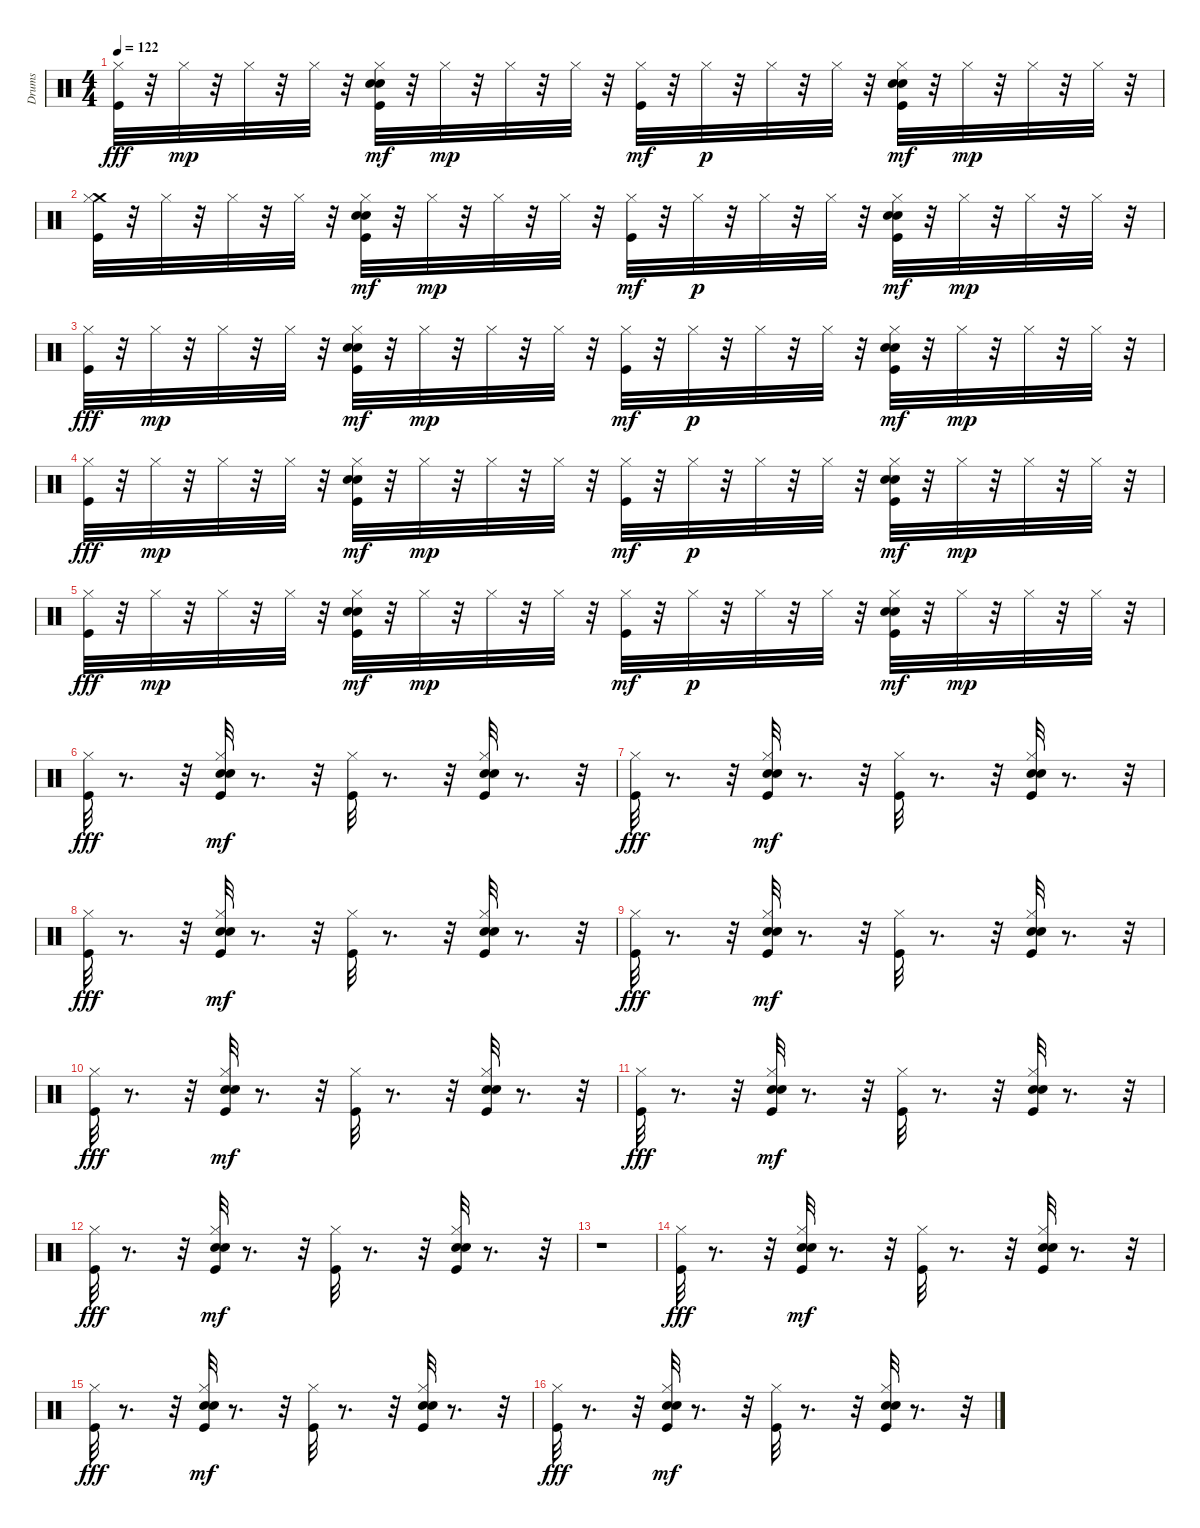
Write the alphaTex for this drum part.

\track ("Drums" "Drums") {instrument percussion}
\staff {score}
\articulation defaults
\ts (4 4)
\tempo 122
\clef neutral
\ks c
("Kick (hit)" "Hi-Hat (closed)").32{dy fff} r.32 "Hi-Hat (closed)".32{dy mp} r.32 "Hi-Hat (closed)".32 r.32 "Hi-Hat (closed)".32 r.32 ("Kick (hit)" "Hand Clap (hit)" "Electric Snare (hit)" "Hi-Hat (closed)").32{dy mf} r.32 "Hi-Hat (closed)".32{dy mp} r.32 "Hi-Hat (closed)".32 r.32 "Hi-Hat (closed)".32 r.32 ("Kick (hit)" "Hi-Hat (closed)").32{dy mf} r.32 "Hi-Hat (closed)".32{dy p} r.32 "Hi-Hat (closed)".32 r.32 "Hi-Hat (closed)".32 r.32 ("Kick (hit)" "Hand Clap (hit)" "Electric Snare (hit)" "Hi-Hat (closed)").32{dy mf} r.32 "Hi-Hat (closed)".32{dy mp} r.32 "Hi-Hat (closed)".32 r.32 "Hi-Hat (closed)".32 r.32 |
("Kick (hit)" "Crash medium (hit)" "Hi-Hat (closed)").32 r.32 "Hi-Hat (closed)".32 r.32 "Hi-Hat (closed)".32 r.32 "Hi-Hat (closed)".32 r.32 ("Kick (hit)" "Hand Clap (hit)" "Electric Snare (hit)" "Hi-Hat (closed)").32{dy mf} r.32 "Hi-Hat (closed)".32{dy mp} r.32 "Hi-Hat (closed)".32 r.32 "Hi-Hat (closed)".32 r.32 ("Kick (hit)" "Hi-Hat (closed)").32{dy mf} r.32 "Hi-Hat (closed)".32{dy p} r.32 "Hi-Hat (closed)".32 r.32 "Hi-Hat (closed)".32 r.32 ("Kick (hit)" "Hand Clap (hit)" "Electric Snare (hit)" "Hi-Hat (closed)").32{dy mf} r.32 "Hi-Hat (closed)".32{dy mp} r.32 "Hi-Hat (closed)".32 r.32 "Hi-Hat (closed)".32 r.32 |
("Kick (hit)" "Hi-Hat (closed)").32{dy fff} r.32 "Hi-Hat (closed)".32{dy mp} r.32 "Hi-Hat (closed)".32 r.32 "Hi-Hat (closed)".32 r.32 ("Kick (hit)" "Hand Clap (hit)" "Electric Snare (hit)" "Hi-Hat (closed)").32{dy mf} r.32 "Hi-Hat (closed)".32{dy mp} r.32 "Hi-Hat (closed)".32 r.32 "Hi-Hat (closed)".32 r.32 ("Kick (hit)" "Hi-Hat (closed)").32{dy mf} r.32 "Hi-Hat (closed)".32{dy p} r.32 "Hi-Hat (closed)".32 r.32 "Hi-Hat (closed)".32 r.32 ("Kick (hit)" "Hand Clap (hit)" "Electric Snare (hit)" "Hi-Hat (closed)").32{dy mf} r.32 "Hi-Hat (closed)".32{dy mp} r.32 "Hi-Hat (closed)".32 r.32 "Hi-Hat (closed)".32 r.32 |
("Kick (hit)" "Hi-Hat (closed)").32{dy fff} r.32 "Hi-Hat (closed)".32{dy mp} r.32 "Hi-Hat (closed)".32 r.32 "Hi-Hat (closed)".32 r.32 ("Kick (hit)" "Hand Clap (hit)" "Electric Snare (hit)" "Hi-Hat (closed)").32{dy mf} r.32 "Hi-Hat (closed)".32{dy mp} r.32 "Hi-Hat (closed)".32 r.32 "Hi-Hat (closed)".32 r.32 ("Kick (hit)" "Hi-Hat (closed)").32{dy mf} r.32 "Hi-Hat (closed)".32{dy p} r.32 "Hi-Hat (closed)".32 r.32 "Hi-Hat (closed)".32 r.32 ("Kick (hit)" "Hand Clap (hit)" "Electric Snare (hit)" "Hi-Hat (closed)").32{dy mf} r.32 "Hi-Hat (closed)".32{dy mp} r.32 "Hi-Hat (closed)".32 r.32 "Hi-Hat (closed)".32 r.32 |
("Kick (hit)" "Hi-Hat (closed)").32{dy fff} r.32 "Hi-Hat (closed)".32{dy mp} r.32 "Hi-Hat (closed)".32 r.32 "Hi-Hat (closed)".32 r.32 ("Kick (hit)" "Hand Clap (hit)" "Electric Snare (hit)" "Hi-Hat (closed)").32{dy mf} r.32 "Hi-Hat (closed)".32{dy mp} r.32 "Hi-Hat (closed)".32 r.32 "Hi-Hat (closed)".32 r.32 ("Kick (hit)" "Hi-Hat (closed)").32{dy mf} r.32 "Hi-Hat (closed)".32{dy p} r.32 "Hi-Hat (closed)".32 r.32 "Hi-Hat (closed)".32 r.32 ("Kick (hit)" "Hand Clap (hit)" "Electric Snare (hit)" "Hi-Hat (closed)").32{dy mf} r.32 "Hi-Hat (closed)".32{dy mp} r.32 "Hi-Hat (closed)".32 r.32 "Hi-Hat (closed)".32 r.32 |
("Kick (hit)" "Hi-Hat (closed)").32{dy fff} r.8{d} r.32 ("Kick (hit)" "Hand Clap (hit)" "Electric Snare (hit)" "Hi-Hat (closed)").32{dy mf} r.8{d} r.32 ("Kick (hit)" "Hi-Hat (closed)").32 r.8{d} r.32 ("Kick (hit)" "Hand Clap (hit)" "Electric Snare (hit)" "Hi-Hat (closed)").32 r.8{d} r.32 |
("Kick (hit)" "Hi-Hat (closed)").32{dy fff} r.8{d} r.32 ("Kick (hit)" "Hand Clap (hit)" "Electric Snare (hit)" "Hi-Hat (closed)").32{dy mf} r.8{d} r.32 ("Kick (hit)" "Hi-Hat (closed)").32 r.8{d} r.32 ("Kick (hit)" "Hand Clap (hit)" "Electric Snare (hit)" "Hi-Hat (closed)").32 r.8{d} r.32 |
("Kick (hit)" "Hi-Hat (closed)").32{dy fff} r.8{d} r.32 ("Kick (hit)" "Hand Clap (hit)" "Electric Snare (hit)" "Hi-Hat (closed)").32{dy mf} r.8{d} r.32 ("Kick (hit)" "Hi-Hat (closed)").32 r.8{d} r.32 ("Kick (hit)" "Hand Clap (hit)" "Electric Snare (hit)" "Hi-Hat (closed)").32 r.8{d} r.32 |
("Kick (hit)" "Hi-Hat (closed)").32{dy fff} r.8{d} r.32 ("Kick (hit)" "Hand Clap (hit)" "Electric Snare (hit)" "Hi-Hat (closed)").32{dy mf} r.8{d} r.32 ("Kick (hit)" "Hi-Hat (closed)").32 r.8{d} r.32 ("Kick (hit)" "Hand Clap (hit)" "Electric Snare (hit)" "Hi-Hat (closed)").32 r.8{d} r.32 |
("Kick (hit)" "Hi-Hat (closed)").32{dy fff} r.8{d} r.32 ("Kick (hit)" "Hand Clap (hit)" "Electric Snare (hit)" "Hi-Hat (closed)").32{dy mf} r.8{d} r.32 ("Kick (hit)" "Hi-Hat (closed)").32 r.8{d} r.32 ("Kick (hit)" "Hand Clap (hit)" "Electric Snare (hit)" "Hi-Hat (closed)").32 r.8{d} r.32 |
("Kick (hit)" "Hi-Hat (closed)").32{dy fff} r.8{d} r.32 ("Kick (hit)" "Hand Clap (hit)" "Electric Snare (hit)" "Hi-Hat (closed)").32{dy mf} r.8{d} r.32 ("Kick (hit)" "Hi-Hat (closed)").32 r.8{d} r.32 ("Kick (hit)" "Hand Clap (hit)" "Electric Snare (hit)" "Hi-Hat (closed)").32 r.8{d} r.32 |
("Kick (hit)" "Hi-Hat (closed)").32{dy fff} r.8{d} r.32 ("Kick (hit)" "Hand Clap (hit)" "Electric Snare (hit)" "Hi-Hat (closed)").32{dy mf} r.8{d} r.32 ("Kick (hit)" "Hi-Hat (closed)").32 r.8{d} r.32 ("Kick (hit)" "Hand Clap (hit)" "Electric Snare (hit)" "Hi-Hat (closed)").32 r.8{d} r.32 |
r.1 |
("Kick (hit)" "Hi-Hat (closed)").32{dy fff} r.8{d} r.32 ("Kick (hit)" "Hand Clap (hit)" "Electric Snare (hit)" "Hi-Hat (closed)").32{dy mf} r.8{d} r.32 ("Kick (hit)" "Hi-Hat (closed)").32 r.8{d} r.32 ("Kick (hit)" "Hand Clap (hit)" "Electric Snare (hit)" "Hi-Hat (closed)").32 r.8{d} r.32 |
("Kick (hit)" "Hi-Hat (closed)").32{dy fff} r.8{d} r.32 ("Kick (hit)" "Hand Clap (hit)" "Electric Snare (hit)" "Hi-Hat (closed)").32{dy mf} r.8{d} r.32 ("Kick (hit)" "Hi-Hat (closed)").32 r.8{d} r.32 ("Kick (hit)" "Hand Clap (hit)" "Electric Snare (hit)" "Hi-Hat (closed)").32 r.8{d} r.32 |
("Kick (hit)" "Hi-Hat (closed)").32{dy fff} r.8{d} r.32 ("Kick (hit)" "Hand Clap (hit)" "Electric Snare (hit)" "Hi-Hat (closed)").32{dy mf} r.8{d} r.32 ("Kick (hit)" "Hi-Hat (closed)").32 r.8{d} r.32 ("Kick (hit)" "Hand Clap (hit)" "Electric Snare (hit)" "Hi-Hat (closed)").32 r.8{d} r.32
